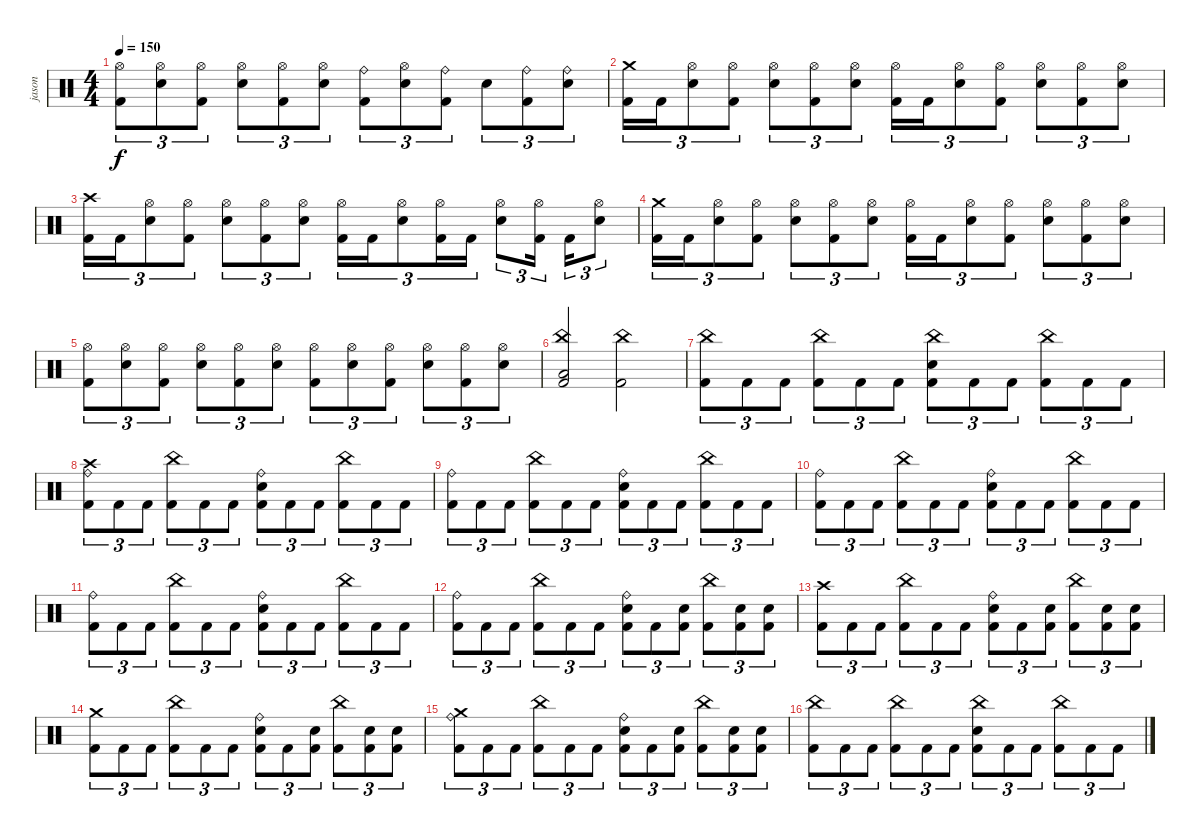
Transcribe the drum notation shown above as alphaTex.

\track ("jason" "jason") {instrument percussion}
\staff {score}
\articulation defaults
\ts (4 4)
\tempo 150
\clef neutral
\ks c
("Hi-Hat (open)" "Kick (hit) 2").8{tu (3 2) dy f} ("Hi-Hat (open)" "Snare (hit) 2").8{tu (3 2)} ("Hi-Hat (open)" "Kick (hit) 2").8{tu (3 2)} ("Hi-Hat (open)" "Snare (hit) 2").8{tu (3 2)} ("Hi-Hat (open)" "Kick (hit) 2").8{tu (3 2)} ("Hi-Hat (open)" "Snare (hit) 2").8{tu (3 2)} ("Ride (bell)" "Kick (hit) 2").8{tu (3 2)} ("Hi-Hat (open)" "Snare (hit) 2").8{tu (3 2)} ("Ride (bell)" "Kick (hit) 2").8{tu (3 2)} "Snare (hit) 2".8{tu (3 2)} ("Ride (bell)" "Kick (hit) 2").8{tu (3 2)} ("Ride (bell)" "Snare (hit) 2").8{tu (3 2)} |
("Crash medium (hit)" "Kick (hit) 2").16{tu (3 2)} "Kick (hit) 2".16{tu (3 2)} ("Hi-Hat (open)" "Snare (hit) 2").8{tu (3 2)} ("Hi-Hat (open)" "Kick (hit) 2").8{tu (3 2)} ("Hi-Hat (open)" "Snare (hit) 2").8{tu (3 2)} ("Hi-Hat (open)" "Kick (hit) 2").8{tu (3 2)} ("Hi-Hat (open)" "Snare (hit) 2").8{tu (3 2)} ("Hi-Hat (open)" "Kick (hit) 2").16{tu (3 2)} "Kick (hit) 2".16{tu (3 2)} ("Hi-Hat (open)" "Snare (hit) 2").8{tu (3 2)} ("Hi-Hat (open)" "Kick (hit) 2").8{tu (3 2)} ("Hi-Hat (open)" "Snare (hit) 2").8{tu (3 2)} ("Hi-Hat (open)" "Kick (hit) 2").8{tu (3 2)} ("Hi-Hat (open)" "Snare (hit) 2").8{tu (3 2)} |
("Crash high (hit)" "Kick (hit) 2").16{tu (3 2)} "Kick (hit) 2".16{tu (3 2)} ("Hi-Hat (open)" "Snare (hit) 2").8{tu (3 2)} ("Hi-Hat (open)" "Kick (hit) 2").8{tu (3 2)} ("Hi-Hat (open)" "Snare (hit) 2").8{tu (3 2)} ("Hi-Hat (open)" "Kick (hit) 2").8{tu (3 2)} ("Hi-Hat (open)" "Snare (hit) 2").8{tu (3 2)} ("Hi-Hat (open)" "Kick (hit) 2").16{tu (3 2)} "Kick (hit) 2".16{tu (3 2)} ("Hi-Hat (open)" "Snare (hit) 2").8{tu (3 2)} ("Hi-Hat (open)" "Kick (hit) 2").16{tu (3 2)} "Kick (hit) 2".16{tu (3 2)} ("Hi-Hat (open)" "Snare (hit) 2").8{tu (3 2)} ("Hi-Hat (open)" "Kick (hit) 2").16{tu (3 2) beam splitsecondary} "Kick (hit) 2".16{tu (3 2)} ("Hi-Hat (open)" "Snare (hit) 2").8{tu (3 2)} |
("Crash medium (hit)" "Kick (hit) 2").16{tu (3 2)} "Kick (hit) 2".16{tu (3 2)} ("Hi-Hat (open)" "Snare (hit) 2").8{tu (3 2)} ("Hi-Hat (open)" "Kick (hit) 2").8{tu (3 2)} ("Hi-Hat (open)" "Snare (hit) 2").8{tu (3 2)} ("Hi-Hat (open)" "Kick (hit) 2").8{tu (3 2)} ("Hi-Hat (open)" "Snare (hit) 2").8{tu (3 2)} ("Hi-Hat (open)" "Kick (hit) 2").16{tu (3 2)} "Kick (hit) 2".16{tu (3 2)} ("Hi-Hat (open)" "Snare (hit) 2").8{tu (3 2)} ("Hi-Hat (open)" "Kick (hit) 2").8{tu (3 2)} ("Hi-Hat (open)" "Snare (hit) 2").8{tu (3 2)} ("Hi-Hat (open)" "Kick (hit) 2").8{tu (3 2)} ("Hi-Hat (open)" "Snare (hit) 2").8{tu (3 2)} |
("Hi-Hat (open)" "Kick (hit) 2").8{tu (3 2)} ("Hi-Hat (open)" "Snare (hit) 2").8{tu (3 2)} ("Hi-Hat (open)" "Kick (hit) 2").8{tu (3 2)} ("Hi-Hat (open)" "Snare (hit) 2").8{tu (3 2)} ("Hi-Hat (open)" "Kick (hit) 2").8{tu (3 2)} ("Hi-Hat (open)" "Snare (hit) 2").8{tu (3 2)} ("Hi-Hat (open)" "Kick (hit) 2").8{tu (3 2)} ("Hi-Hat (open)" "Snare (hit) 2").8{tu (3 2)} ("Hi-Hat (open)" "Kick (hit) 2").8{tu (3 2)} ("Hi-Hat (open)" "Snare (hit) 2").8{tu (3 2)} ("Hi-Hat (open)" "Kick (hit) 2").8{tu (3 2)} ("Hi-Hat (open)" "Snare (hit) 2").8{tu (3 2)} |
("China (hit)" "Low Floor Tom (hit)" "Kick (hit) 2").2 ("China (hit)" "Kick (hit) 2").2 |
("China (hit)" "Kick (hit) 2").8{tu (3 2)} "Kick (hit) 2".8{tu (3 2)} "Kick (hit) 2".8{tu (3 2)} ("China (hit)" "Kick (hit) 2").8{tu (3 2)} "Kick (hit) 2".8{tu (3 2)} "Kick (hit) 2".8{tu (3 2)} ("China (hit)" "Snare (hit) 2" "Kick (hit) 2").8{tu (3 2)} "Kick (hit) 2".8{tu (3 2)} "Kick (hit) 2".8{tu (3 2)} ("China (hit)" "Kick (hit) 2").8{tu (3 2)} "Kick (hit) 2".8{tu (3 2)} "Kick (hit) 2".8{tu (3 2)} |
("Crash high (hit)" "Ride (bell)" "Kick (hit) 2").8{tu (3 2)} "Kick (hit) 2".8{tu (3 2)} "Kick (hit) 2".8{tu (3 2)} ("China (hit)" "Kick (hit) 2").8{tu (3 2)} "Kick (hit) 2".8{tu (3 2)} "Kick (hit) 2".8{tu (3 2)} ("Ride (bell)" "Snare (hit) 2" "Kick (hit) 2").8{tu (3 2)} "Kick (hit) 2".8{tu (3 2)} "Kick (hit) 2".8{tu (3 2)} ("China (hit)" "Kick (hit) 2").8{tu (3 2)} "Kick (hit) 2".8{tu (3 2)} "Kick (hit) 2".8{tu (3 2)} |
("Ride (bell)" "Kick (hit) 2").8{tu (3 2)} "Kick (hit) 2".8{tu (3 2)} "Kick (hit) 2".8{tu (3 2)} ("China (hit)" "Kick (hit) 2").8{tu (3 2)} "Kick (hit) 2".8{tu (3 2)} "Kick (hit) 2".8{tu (3 2)} ("Ride (bell)" "Snare (hit) 2" "Kick (hit) 2").8{tu (3 2)} "Kick (hit) 2".8{tu (3 2)} "Kick (hit) 2".8{tu (3 2)} ("China (hit)" "Kick (hit) 2").8{tu (3 2)} "Kick (hit) 2".8{tu (3 2)} "Kick (hit) 2".8{tu (3 2)} |
("Ride (bell)" "Kick (hit) 2").8{tu (3 2)} "Kick (hit) 2".8{tu (3 2)} "Kick (hit) 2".8{tu (3 2)} ("China (hit)" "Kick (hit) 2").8{tu (3 2)} "Kick (hit) 2".8{tu (3 2)} "Kick (hit) 2".8{tu (3 2)} ("Ride (bell)" "Snare (hit) 2" "Kick (hit) 2").8{tu (3 2)} "Kick (hit) 2".8{tu (3 2)} "Kick (hit) 2".8{tu (3 2)} ("China (hit)" "Kick (hit) 2").8{tu (3 2)} "Kick (hit) 2".8{tu (3 2)} "Kick (hit) 2".8{tu (3 2)} |
("Ride (bell)" "Kick (hit) 2").8{tu (3 2)} "Kick (hit) 2".8{tu (3 2)} "Kick (hit) 2".8{tu (3 2)} ("China (hit)" "Kick (hit) 2").8{tu (3 2)} "Kick (hit) 2".8{tu (3 2)} "Kick (hit) 2".8{tu (3 2)} ("Ride (bell)" "Snare (hit) 2" "Kick (hit) 2").8{tu (3 2)} "Kick (hit) 2".8{tu (3 2)} "Kick (hit) 2".8{tu (3 2)} ("China (hit)" "Kick (hit) 2").8{tu (3 2)} "Kick (hit) 2".8{tu (3 2)} "Kick (hit) 2".8{tu (3 2)} |
("Ride (bell)" "Kick (hit) 2").8{tu (3 2)} "Kick (hit) 2".8{tu (3 2)} "Kick (hit) 2".8{tu (3 2)} ("China (hit)" "Kick (hit) 2").8{tu (3 2)} "Kick (hit) 2".8{tu (3 2)} "Kick (hit) 2".8{tu (3 2)} ("Ride (bell)" "Snare (hit) 2" "Kick (hit) 2").8{tu (3 2)} "Kick (hit) 2".8{tu (3 2)} ("Snare (hit) 2" "Kick (hit) 2").8{tu (3 2)} ("China (hit)" "Kick (hit) 2").8{tu (3 2)} ("Snare (hit) 2" "Kick (hit) 2").8{tu (3 2)} ("Snare (hit) 2" "Kick (hit) 2").8{tu (3 2)} |
("Crash high (hit)" "Kick (hit) 2").8{tu (3 2)} "Kick (hit) 2".8{tu (3 2)} "Kick (hit) 2".8{tu (3 2)} ("China (hit)" "Kick (hit) 2").8{tu (3 2)} "Kick (hit) 2".8{tu (3 2)} "Kick (hit) 2".8{tu (3 2)} ("Ride (bell)" "Snare (hit) 2" "Kick (hit) 2").8{tu (3 2)} "Kick (hit) 2".8{tu (3 2)} ("Snare (hit) 2" "Kick (hit) 2").8{tu (3 2)} ("China (hit)" "Kick (hit) 2").8{tu (3 2)} ("Snare (hit) 2" "Kick (hit) 2").8{tu (3 2)} ("Snare (hit) 2" "Kick (hit) 2").8{tu (3 2)} |
("Crash medium (hit)" "Kick (hit) 2").8{tu (3 2)} "Kick (hit) 2".8{tu (3 2)} "Kick (hit) 2".8{tu (3 2)} ("China (hit)" "Kick (hit) 2").8{tu (3 2)} "Kick (hit) 2".8{tu (3 2)} "Kick (hit) 2".8{tu (3 2)} ("Ride (bell)" "Snare (hit) 2" "Kick (hit) 2").8{tu (3 2)} "Kick (hit) 2".8{tu (3 2)} ("Snare (hit) 2" "Kick (hit) 2").8{tu (3 2)} ("China (hit)" "Kick (hit) 2").8{tu (3 2)} ("Snare (hit) 2" "Kick (hit) 2").8{tu (3 2)} ("Snare (hit) 2" "Kick (hit) 2").8{tu (3 2)} |
("Crash medium (hit)" "Ride (bell)" "Kick (hit) 2").8{tu (3 2)} "Kick (hit) 2".8{tu (3 2)} "Kick (hit) 2".8{tu (3 2)} ("China (hit)" "Kick (hit) 2").8{tu (3 2)} "Kick (hit) 2".8{tu (3 2)} "Kick (hit) 2".8{tu (3 2)} ("Ride (bell)" "Snare (hit) 2" "Kick (hit) 2").8{tu (3 2)} "Kick (hit) 2".8{tu (3 2)} ("Snare (hit) 2" "Kick (hit) 2").8{tu (3 2)} ("China (hit)" "Kick (hit) 2").8{tu (3 2)} ("Snare (hit) 2" "Kick (hit) 2").8{tu (3 2)} ("Snare (hit) 2" "Kick (hit) 2").8{tu (3 2)} |
("China (hit)" "Kick (hit) 2").8{tu (3 2)} "Kick (hit) 2".8{tu (3 2)} "Kick (hit) 2".8{tu (3 2)} ("China (hit)" "Kick (hit) 2").8{tu (3 2)} "Kick (hit) 2".8{tu (3 2)} "Kick (hit) 2".8{tu (3 2)} ("China (hit)" "Snare (hit) 2" "Kick (hit) 2").8{tu (3 2)} "Kick (hit) 2".8{tu (3 2)} "Kick (hit) 2".8{tu (3 2)} ("China (hit)" "Kick (hit) 2").8{tu (3 2)} "Kick (hit) 2".8{tu (3 2)} "Kick (hit) 2".8{tu (3 2)}
